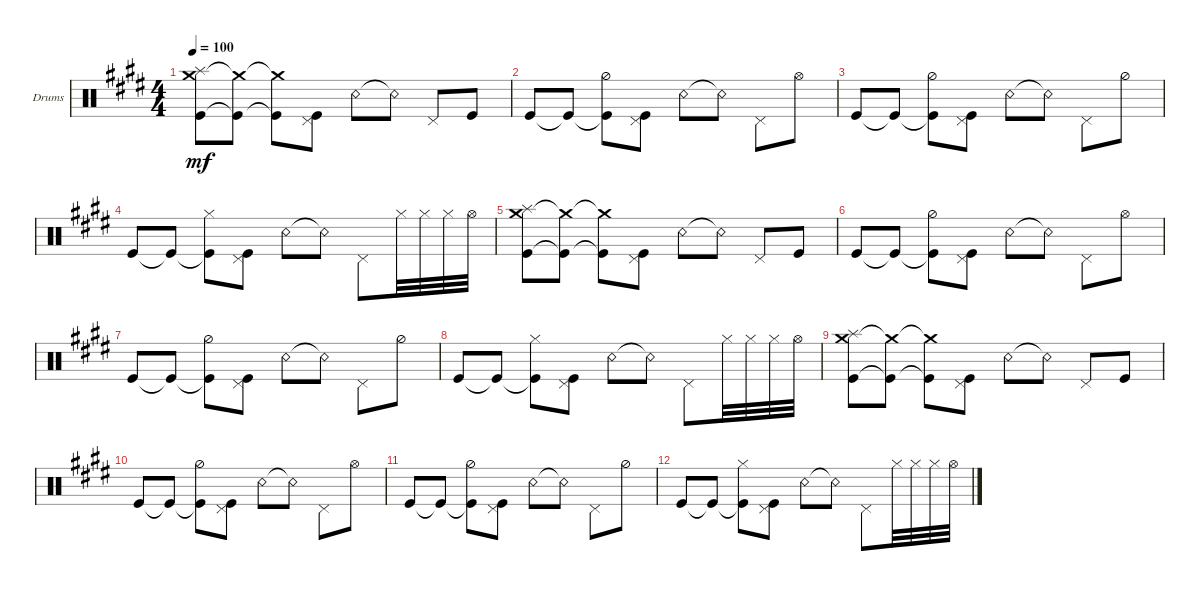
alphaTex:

\defaultSystemsLayout 4
\bracketExtendMode groupsimilarinstruments
\firstSystemTrackNameOrientation horizontal
\otherSystemsTrackNameOrientation horizontal
\track ("Drumkit" "Drums") {multiBarRest instrument percussion}
\staff {score}
\articulation defaults
\ts (4 4)
\tempo 100
\clef neutral
\ks e
("Kick (hit)" "Crash medium (hit)" "Splash (hit)").8{dy mf} ("Kick (hit)"{t} "Crash medium (hit)"{t}).8 ("Kick (hit)"{t} "Crash medium (hit)"{t}).8 ("Kick (hit)" "Pedal Hi-Hat (hit)").8 "Snare (rim shot)".8 "Snare (rim shot)"{t}.8 "Pedal Hi-Hat (hit)".8 "Kick (hit)".8 |
"Kick (hit)".8 "Kick (hit)"{t}.8 ("Kick (hit)"{t} "Hi-Hat (half)").8 ("Kick (hit)" "Pedal Hi-Hat (hit)").8 "Snare (rim shot)".8 "Snare (rim shot)"{t}.8 "Pedal Hi-Hat (hit)".8 "Hi-Hat (open)".8 |
"Kick (hit)".8 "Kick (hit)"{t}.8 ("Kick (hit)"{t} "Hi-Hat (half)").8 ("Kick (hit)" "Pedal Hi-Hat (hit)").8 "Snare (rim shot)".8 "Snare (rim shot)"{t}.8 "Pedal Hi-Hat (hit)".8 "Hi-Hat (half)".8 |
"Kick (hit)".8 "Kick (hit)"{t}.8 ("Kick (hit)"{t} "Hi-Hat (closed)").8 ("Kick (hit)" "Pedal Hi-Hat (hit)").8 "Snare (rim shot)".8 "Snare (rim shot)"{t}.8 "Pedal Hi-Hat (hit)".8 "Hi-Hat (closed)".32 "Hi-Hat (closed)".32 "Hi-Hat (closed)".32 "Hi-Hat (open)".32 |
("Kick (hit)" "Crash medium (hit)" "Splash (hit)").8 ("Kick (hit)"{t} "Crash medium (hit)"{t}).8 ("Kick (hit)"{t} "Crash medium (hit)"{t}).8 ("Kick (hit)" "Pedal Hi-Hat (hit)").8 "Snare (rim shot)".8 "Snare (rim shot)"{t}.8 "Pedal Hi-Hat (hit)".8 "Kick (hit)".8 |
"Kick (hit)".8 "Kick (hit)"{t}.8 ("Kick (hit)"{t} "Hi-Hat (half)").8 ("Kick (hit)" "Pedal Hi-Hat (hit)").8 "Snare (rim shot)".8 "Snare (rim shot)"{t}.8 "Pedal Hi-Hat (hit)".8 "Hi-Hat (open)".8 |
"Kick (hit)".8 "Kick (hit)"{t}.8 ("Kick (hit)"{t} "Hi-Hat (half)").8 ("Kick (hit)" "Pedal Hi-Hat (hit)").8 "Snare (rim shot)".8 "Snare (rim shot)"{t}.8 "Pedal Hi-Hat (hit)".8 "Hi-Hat (half)".8 |
"Kick (hit)".8 "Kick (hit)"{t}.8 ("Kick (hit)"{t} "Hi-Hat (closed)").8 ("Kick (hit)" "Pedal Hi-Hat (hit)").8 "Snare (rim shot)".8 "Snare (rim shot)"{t}.8 "Pedal Hi-Hat (hit)".8 "Hi-Hat (closed)".32 "Hi-Hat (closed)".32 "Hi-Hat (closed)".32 "Hi-Hat (open)".32 |
("Kick (hit)" "Crash medium (hit)" "Splash (hit)").8 ("Kick (hit)"{t} "Crash medium (hit)"{t}).8 ("Kick (hit)"{t} "Crash medium (hit)"{t}).8 ("Kick (hit)" "Pedal Hi-Hat (hit)").8 "Snare (rim shot)".8 "Snare (rim shot)"{t}.8 "Pedal Hi-Hat (hit)".8 "Kick (hit)".8 |
"Kick (hit)".8 "Kick (hit)"{t}.8 ("Kick (hit)"{t} "Hi-Hat (half)").8 ("Kick (hit)" "Pedal Hi-Hat (hit)").8 "Snare (rim shot)".8 "Snare (rim shot)"{t}.8 "Pedal Hi-Hat (hit)".8 "Hi-Hat (open)".8 |
"Kick (hit)".8 "Kick (hit)"{t}.8 ("Kick (hit)"{t} "Hi-Hat (half)").8 ("Kick (hit)" "Pedal Hi-Hat (hit)").8 "Snare (rim shot)".8 "Snare (rim shot)"{t}.8 "Pedal Hi-Hat (hit)".8 "Hi-Hat (half)".8 |
"Kick (hit)".8 "Kick (hit)"{t}.8 ("Kick (hit)"{t} "Hi-Hat (closed)").8 ("Kick (hit)" "Pedal Hi-Hat (hit)").8 "Snare (rim shot)".8 "Snare (rim shot)"{t}.8 "Pedal Hi-Hat (hit)".8 "Hi-Hat (closed)".32 "Hi-Hat (closed)".32 "Hi-Hat (closed)".32 "Hi-Hat (open)".32
